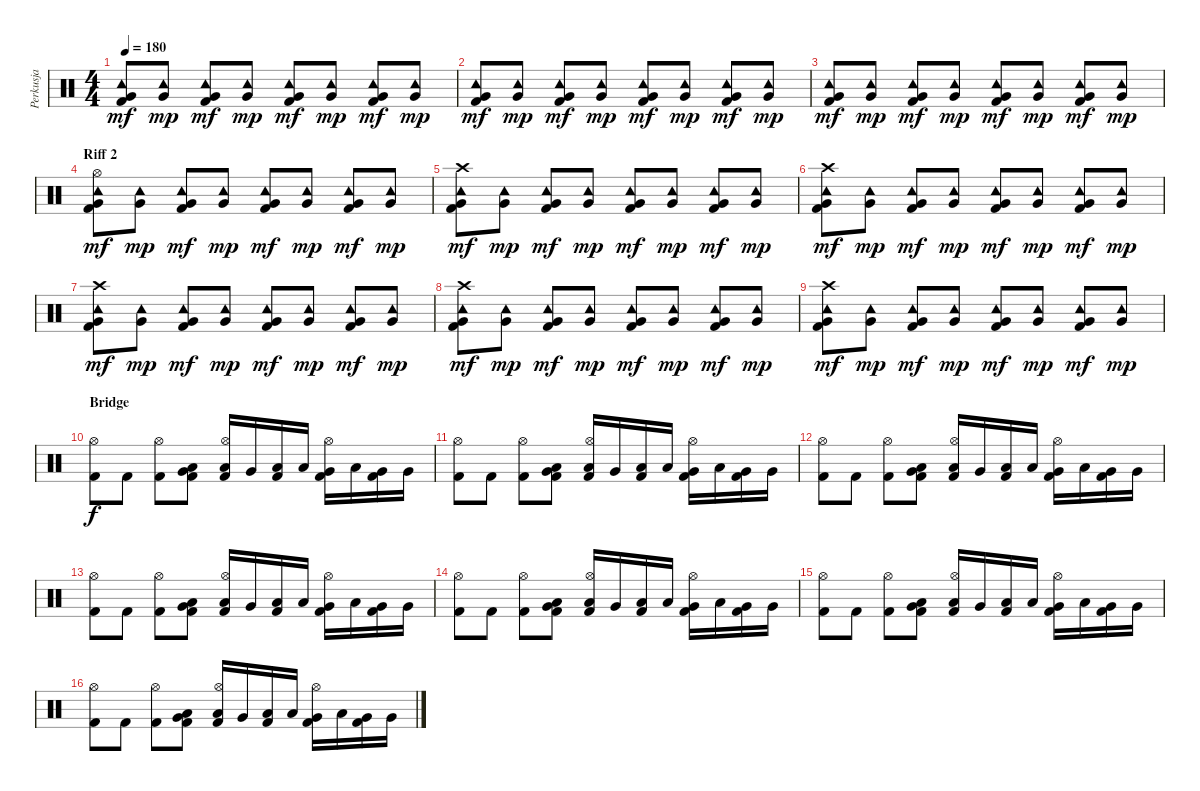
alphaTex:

\track ("Perkusja" "Perkusja") {instrument percussion}
\staff {score}
\articulation defaults
\ts (4 4)
\tempo 180
\clef neutral
\ks c
("Tambourine (hit)" "Kick (hit) 2" "Very Low Tom (hit)").8{dy mf} ("Tambourine (hit)" "Very Low Tom (hit)").8{dy mp} ("Tambourine (hit)" "Kick (hit) 2" "Very Low Tom (hit)").8{dy mf} ("Tambourine (hit)" "Very Low Tom (hit)").8{dy mp} ("Tambourine (hit)" "Kick (hit) 2" "Very Low Tom (hit)").8{dy mf} ("Tambourine (hit)" "Very Low Tom (hit)").8{dy mp} ("Tambourine (hit)" "Kick (hit) 2" "Very Low Tom (hit)").8{dy mf} ("Tambourine (hit)" "Very Low Tom (hit)").8{dy mp} |
("Tambourine (hit)" "Kick (hit) 2" "Very Low Tom (hit)").8{dy mf} ("Tambourine (hit)" "Very Low Tom (hit)").8{dy mp} ("Tambourine (hit)" "Kick (hit) 2" "Very Low Tom (hit)").8{dy mf} ("Tambourine (hit)" "Very Low Tom (hit)").8{dy mp} ("Tambourine (hit)" "Kick (hit) 2" "Very Low Tom (hit)").8{dy mf} ("Tambourine (hit)" "Very Low Tom (hit)").8{dy mp} ("Tambourine (hit)" "Kick (hit) 2" "Very Low Tom (hit)").8{dy mf} ("Tambourine (hit)" "Very Low Tom (hit)").8{dy mp} |
("Tambourine (hit)" "Kick (hit) 2" "Very Low Tom (hit)").8{dy mf} ("Tambourine (hit)" "Very Low Tom (hit)").8{dy mp} ("Tambourine (hit)" "Kick (hit) 2" "Very Low Tom (hit)").8{dy mf} ("Tambourine (hit)" "Very Low Tom (hit)").8{dy mp} ("Tambourine (hit)" "Kick (hit) 2" "Very Low Tom (hit)").8{dy mf} ("Tambourine (hit)" "Very Low Tom (hit)").8{dy mp} ("Tambourine (hit)" "Kick (hit) 2" "Very Low Tom (hit)").8{dy mf} ("Tambourine (hit)" "Very Low Tom (hit)").8{dy mp} |
\section ("" "Riff 2")
("Tambourine (hit)" "Kick (hit) 2" "Very Low Tom (hit)" "Hi-Hat (open)").8{dy mf} ("Tambourine (hit)" "Very Low Tom (hit)").8{dy mp} ("Tambourine (hit)" "Kick (hit) 2" "Very Low Tom (hit)").8{dy mf} ("Tambourine (hit)" "Very Low Tom (hit)").8{dy mp} ("Tambourine (hit)" "Kick (hit) 2" "Very Low Tom (hit)").8{dy mf} ("Tambourine (hit)" "Very Low Tom (hit)").8{dy mp} ("Tambourine (hit)" "Kick (hit) 2" "Very Low Tom (hit)").8{dy mf} ("Tambourine (hit)" "Very Low Tom (hit)").8{dy mp} |
("Tambourine (hit)" "Kick (hit) 2" "Very Low Tom (hit)" "Crash high (hit)").8{dy mf} ("Tambourine (hit)" "Very Low Tom (hit)").8{dy mp} ("Tambourine (hit)" "Kick (hit) 2" "Very Low Tom (hit)").8{dy mf} ("Tambourine (hit)" "Very Low Tom (hit)").8{dy mp} ("Tambourine (hit)" "Kick (hit) 2" "Very Low Tom (hit)").8{dy mf} ("Tambourine (hit)" "Very Low Tom (hit)").8{dy mp} ("Tambourine (hit)" "Kick (hit) 2" "Very Low Tom (hit)").8{dy mf} ("Tambourine (hit)" "Very Low Tom (hit)").8{dy mp} |
("Tambourine (hit)" "Kick (hit) 2" "Very Low Tom (hit)" "Crash high (hit)").8{dy mf} ("Tambourine (hit)" "Very Low Tom (hit)").8{dy mp} ("Tambourine (hit)" "Kick (hit) 2" "Very Low Tom (hit)").8{dy mf} ("Tambourine (hit)" "Very Low Tom (hit)").8{dy mp} ("Tambourine (hit)" "Kick (hit) 2" "Very Low Tom (hit)").8{dy mf} ("Tambourine (hit)" "Very Low Tom (hit)").8{dy mp} ("Tambourine (hit)" "Kick (hit) 2" "Very Low Tom (hit)").8{dy mf} ("Tambourine (hit)" "Very Low Tom (hit)").8{dy mp} |
("Tambourine (hit)" "Kick (hit) 2" "Very Low Tom (hit)" "Crash high (hit)").8{dy mf} ("Tambourine (hit)" "Very Low Tom (hit)").8{dy mp} ("Tambourine (hit)" "Kick (hit) 2" "Very Low Tom (hit)").8{dy mf} ("Tambourine (hit)" "Very Low Tom (hit)").8{dy mp} ("Tambourine (hit)" "Kick (hit) 2" "Very Low Tom (hit)").8{dy mf} ("Tambourine (hit)" "Very Low Tom (hit)").8{dy mp} ("Tambourine (hit)" "Kick (hit) 2" "Very Low Tom (hit)").8{dy mf} ("Tambourine (hit)" "Very Low Tom (hit)").8{dy mp} |
("Tambourine (hit)" "Kick (hit) 2" "Very Low Tom (hit)" "Crash high (hit)").8{dy mf} ("Tambourine (hit)" "Very Low Tom (hit)").8{dy mp} ("Tambourine (hit)" "Kick (hit) 2" "Very Low Tom (hit)").8{dy mf} ("Tambourine (hit)" "Very Low Tom (hit)").8{dy mp} ("Tambourine (hit)" "Kick (hit) 2" "Very Low Tom (hit)").8{dy mf} ("Tambourine (hit)" "Very Low Tom (hit)").8{dy mp} ("Tambourine (hit)" "Kick (hit) 2" "Very Low Tom (hit)").8{dy mf} ("Tambourine (hit)" "Very Low Tom (hit)").8{dy mp} |
("Tambourine (hit)" "Kick (hit) 2" "Very Low Tom (hit)" "Crash high (hit)").8{dy mf} ("Tambourine (hit)" "Very Low Tom (hit)").8{dy mp} ("Tambourine (hit)" "Kick (hit) 2" "Very Low Tom (hit)").8{dy mf} ("Tambourine (hit)" "Very Low Tom (hit)").8{dy mp} ("Tambourine (hit)" "Kick (hit) 2" "Very Low Tom (hit)").8{dy mf} ("Tambourine (hit)" "Very Low Tom (hit)").8{dy mp} ("Tambourine (hit)" "Kick (hit) 2" "Very Low Tom (hit)").8{dy mf} ("Tambourine (hit)" "Very Low Tom (hit)").8{dy mp} |
\section ("" "Bridge")
("Kick (hit) 2" "Hi-Hat (open)").8{dy f} "Kick (hit) 2".8 ("Kick (hit) 2" "Hi-Hat (open)").8 ("Kick (hit) 2" "Low Floor Tom (hit)" "Very Low Tom (hit)").8 ("Kick (hit) 2" "Low Floor Tom (hit)" "Hi-Hat (open)").16 "Very Low Tom (hit)".16 ("Kick (hit) 2" "Low Tom (hit)").16 "Low Floor Tom (hit)".16 ("Kick (hit) 2" "Very Low Tom (hit)" "Hi-Hat (open)").16 "Low Floor Tom (hit)".16 ("Kick (hit) 2" "Very Low Tom (hit)").16 "Very Low Tom (hit)".16 |
("Kick (hit) 2" "Hi-Hat (open)").8 "Kick (hit) 2".8 ("Kick (hit) 2" "Hi-Hat (open)").8 ("Kick (hit) 2" "Low Floor Tom (hit)" "Very Low Tom (hit)").8 ("Kick (hit) 2" "Low Floor Tom (hit)" "Hi-Hat (open)").16 "Very Low Tom (hit)".16 ("Kick (hit) 2" "Low Tom (hit)").16 "Low Floor Tom (hit)".16 ("Kick (hit) 2" "Very Low Tom (hit)" "Hi-Hat (open)").16 "Low Floor Tom (hit)".16 ("Kick (hit) 2" "Very Low Tom (hit)").16 "Very Low Tom (hit)".16 |
("Kick (hit) 2" "Hi-Hat (open)").8 "Kick (hit) 2".8 ("Kick (hit) 2" "Hi-Hat (open)").8 ("Kick (hit) 2" "Low Floor Tom (hit)" "Very Low Tom (hit)").8 ("Kick (hit) 2" "Low Floor Tom (hit)" "Hi-Hat (open)").16 "Very Low Tom (hit)".16 ("Kick (hit) 2" "Low Tom (hit)").16 "Low Floor Tom (hit)".16 ("Kick (hit) 2" "Very Low Tom (hit)" "Hi-Hat (open)").16 "Low Floor Tom (hit)".16 ("Kick (hit) 2" "Very Low Tom (hit)").16 "Very Low Tom (hit)".16 |
("Kick (hit) 2" "Hi-Hat (open)").8 "Kick (hit) 2".8 ("Kick (hit) 2" "Hi-Hat (open)").8 ("Kick (hit) 2" "Low Floor Tom (hit)" "Very Low Tom (hit)").8 ("Kick (hit) 2" "Low Floor Tom (hit)" "Hi-Hat (open)").16 "Very Low Tom (hit)".16 ("Kick (hit) 2" "Low Tom (hit)").16 "Low Floor Tom (hit)".16 ("Kick (hit) 2" "Very Low Tom (hit)" "Hi-Hat (open)").16 "Low Floor Tom (hit)".16 ("Kick (hit) 2" "Very Low Tom (hit)").16 "Very Low Tom (hit)".16 |
("Kick (hit) 2" "Hi-Hat (open)").8 "Kick (hit) 2".8 ("Kick (hit) 2" "Hi-Hat (open)").8 ("Kick (hit) 2" "Low Floor Tom (hit)" "Very Low Tom (hit)").8 ("Kick (hit) 2" "Low Floor Tom (hit)" "Hi-Hat (open)").16 "Very Low Tom (hit)".16 ("Kick (hit) 2" "Low Tom (hit)").16 "Low Floor Tom (hit)".16 ("Kick (hit) 2" "Very Low Tom (hit)" "Hi-Hat (open)").16 "Low Floor Tom (hit)".16 ("Kick (hit) 2" "Very Low Tom (hit)").16 "Very Low Tom (hit)".16 |
("Kick (hit) 2" "Hi-Hat (open)").8 "Kick (hit) 2".8 ("Kick (hit) 2" "Hi-Hat (open)").8 ("Kick (hit) 2" "Low Floor Tom (hit)" "Very Low Tom (hit)").8 ("Kick (hit) 2" "Low Floor Tom (hit)" "Hi-Hat (open)").16 "Very Low Tom (hit)".16 ("Kick (hit) 2" "Low Tom (hit)").16 "Low Floor Tom (hit)".16 ("Kick (hit) 2" "Very Low Tom (hit)" "Hi-Hat (open)").16 "Low Floor Tom (hit)".16 ("Kick (hit) 2" "Very Low Tom (hit)").16 "Very Low Tom (hit)".16 |
("Kick (hit) 2" "Hi-Hat (open)").8 "Kick (hit) 2".8 ("Kick (hit) 2" "Hi-Hat (open)").8 ("Kick (hit) 2" "Low Floor Tom (hit)" "Very Low Tom (hit)").8 ("Kick (hit) 2" "Low Floor Tom (hit)" "Hi-Hat (open)").16 "Very Low Tom (hit)".16 ("Kick (hit) 2" "Low Tom (hit)").16 "Low Floor Tom (hit)".16 ("Kick (hit) 2" "Very Low Tom (hit)" "Hi-Hat (open)").16 "Low Floor Tom (hit)".16 ("Kick (hit) 2" "Very Low Tom (hit)").16 "Very Low Tom (hit)".16
